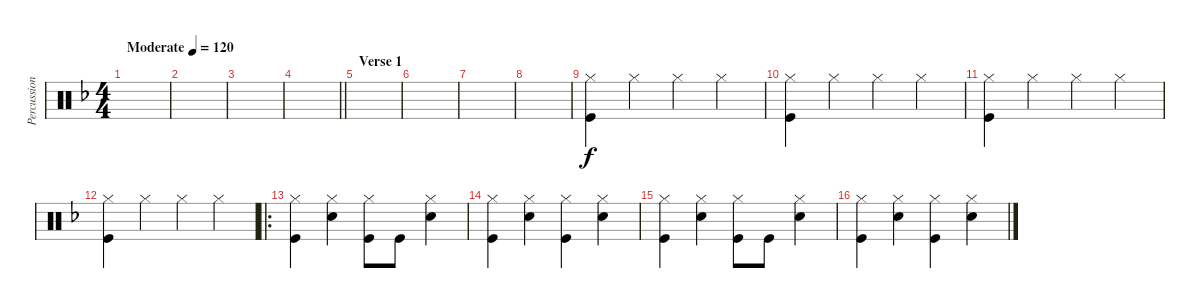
\track ("Percussion" "Percussion") {instrument percussion}
\staff {score}
\articulation defaults
\ts (4 4)
\tempo (120 "Moderate")
\clef neutral
\ks f
|
|
|
\barLineRight lightlight
|
\section ("" "Verse 1")
|
|
|
|
("Hi-Hat (closed)" "Kick (hit)").4 "Hi-Hat (closed)".4 "Hi-Hat (closed)".4 "Hi-Hat (closed)".4 |
("Hi-Hat (closed)" "Kick (hit)").4 "Hi-Hat (closed)".4 "Hi-Hat (closed)".4 "Hi-Hat (closed)".4 |
("Hi-Hat (closed)" "Kick (hit)").4 "Hi-Hat (closed)".4 "Hi-Hat (closed)".4 "Hi-Hat (closed)".4 |
("Hi-Hat (closed)" "Kick (hit)").4 "Hi-Hat (closed)".4 "Hi-Hat (closed)".4 "Hi-Hat (closed)".4 |
\ro
("Hi-Hat (closed)" "Kick (hit)").4 ("Hi-Hat (closed)" "Electric Snare (hit)").4 ("Hi-Hat (closed)" "Kick (hit)").8 "Kick (hit)".8 ("Hi-Hat (closed)" "Electric Snare (hit)").4 |
("Hi-Hat (closed)" "Kick (hit)").4 ("Hi-Hat (closed)" "Electric Snare (hit)").4 ("Hi-Hat (closed)" "Kick (hit)").4 ("Hi-Hat (closed)" "Electric Snare (hit)").4 |
("Hi-Hat (closed)" "Kick (hit)").4 ("Hi-Hat (closed)" "Electric Snare (hit)").4 ("Hi-Hat (closed)" "Kick (hit)").8 "Kick (hit)".8 ("Hi-Hat (closed)" "Electric Snare (hit)").4 |
("Hi-Hat (closed)" "Kick (hit)").4 ("Hi-Hat (closed)" "Electric Snare (hit)").4 ("Hi-Hat (closed)" "Kick (hit)").4 ("Hi-Hat (closed)" "Electric Snare (hit)").4
